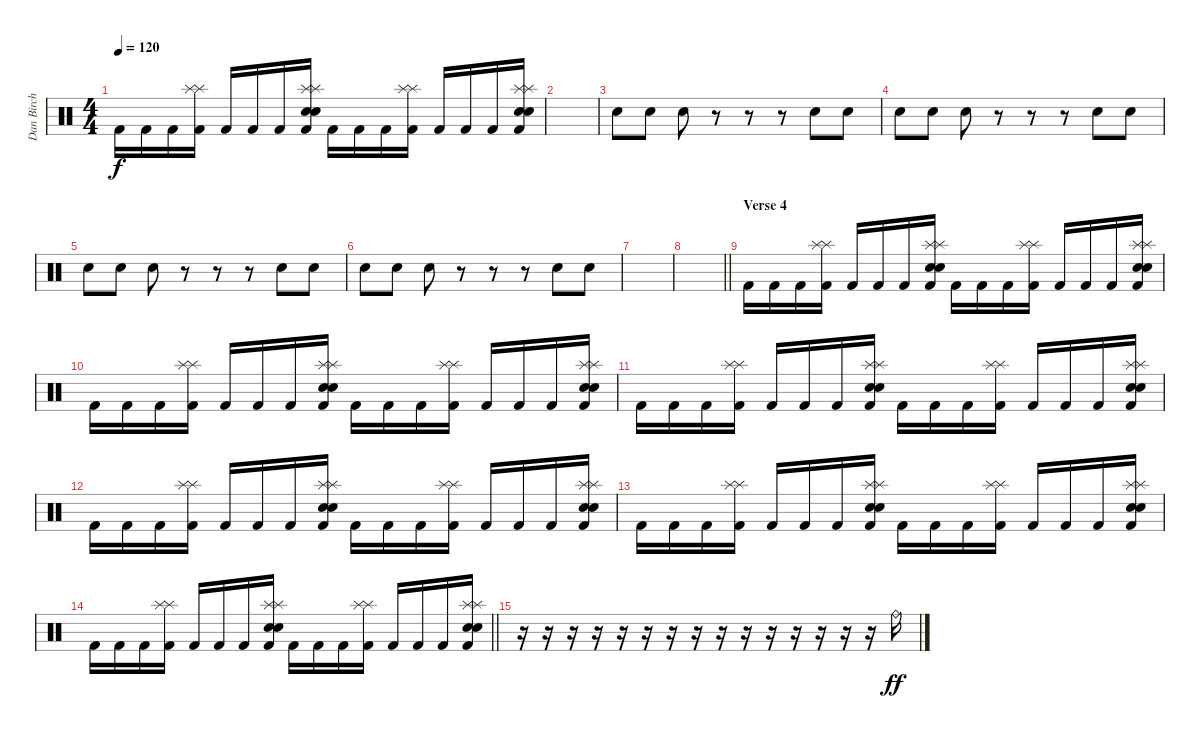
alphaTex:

\track ("Dan Birch" "Dan Birch") {instrument percussion}
\staff {score}
\articulation defaults
\ts (4 4)
\tempo 120
\clef neutral
\ks c "Kick (hit) 2".16{dy f} "Kick (hit) 2".16 "Kick (hit) 2".16
("Splash (hit)" "Splash (hit)" "Kick (hit) 2").16 "Kick (hit) 2".16 "Kick (hit) 2".16 "Kick (hit) 2".16 ("Splash (hit)" "Splash (hit)" "Kick (hit) 2" "Snare (hit) 2" "Snare (hit) 2").16 "Kick (hit) 2".16 "Kick (hit) 2".16 "Kick (hit) 2".16 ("Splash (hit)" "Splash (hit)" "Kick (hit) 2").16 "Kick (hit) 2".16 "Kick (hit) 2".16 "Kick (hit) 2".16 ("Splash (hit)" "Splash (hit)" "Kick (hit) 2" "Snare (hit) 2" "Snare (hit) 2").16 |
|
"Snare (hit) 2".8 "Snare (hit) 2".8 "Snare (hit) 2".8 r.8 r.8 r.8 "Snare (hit) 2".8 "Snare (hit) 2".8 |
"Snare (hit) 2".8 "Snare (hit) 2".8 "Snare (hit) 2".8 r.8 r.8 r.8 "Snare (hit) 2".8 "Snare (hit) 2".8 |
"Snare (hit) 2".8 "Snare (hit) 2".8 "Snare (hit) 2".8 r.8 r.8 r.8 "Snare (hit) 2".8 "Snare (hit) 2".8 |
"Snare (hit) 2".8 "Snare (hit) 2".8 "Snare (hit) 2".8 r.8 r.8 r.8 "Snare (hit) 2".8 "Snare (hit) 2".8 |
|
\barLineRight lightlight
|
\section ("" "Verse 4")
"Kick (hit) 2".16 "Kick (hit) 2".16 "Kick (hit) 2".16 ("Splash (hit)" "Splash (hit)" "Kick (hit) 2").16 "Kick (hit) 2".16 "Kick (hit) 2".16 "Kick (hit) 2".16 ("Splash (hit)" "Splash (hit)" "Kick (hit) 2" "Snare (hit) 2" "Snare (hit) 2").16 "Kick (hit) 2".16 "Kick (hit) 2".16 "Kick (hit) 2".16 ("Splash (hit)" "Splash (hit)" "Kick (hit) 2").16 "Kick (hit) 2".16 "Kick (hit) 2".16 "Kick (hit) 2".16 ("Splash (hit)" "Splash (hit)" "Kick (hit) 2" "Snare (hit) 2" "Snare (hit) 2").16 |
"Kick (hit) 2".16 "Kick (hit) 2".16 "Kick (hit) 2".16 ("Splash (hit)" "Splash (hit)" "Kick (hit) 2").16 "Kick (hit) 2".16 "Kick (hit) 2".16 "Kick (hit) 2".16 ("Splash (hit)" "Splash (hit)" "Kick (hit) 2" "Snare (hit) 2" "Snare (hit) 2").16 "Kick (hit) 2".16 "Kick (hit) 2".16 "Kick (hit) 2".16 ("Splash (hit)" "Splash (hit)" "Kick (hit) 2").16 "Kick (hit) 2".16 "Kick (hit) 2".16 "Kick (hit) 2".16 ("Splash (hit)" "Splash (hit)" "Kick (hit) 2" "Snare (hit) 2" "Snare (hit) 2").16 |
"Kick (hit) 2".16 "Kick (hit) 2".16 "Kick (hit) 2".16 ("Splash (hit)" "Splash (hit)" "Kick (hit) 2").16 "Kick (hit) 2".16 "Kick (hit) 2".16 "Kick (hit) 2".16 ("Splash (hit)" "Splash (hit)" "Kick (hit) 2" "Snare (hit) 2" "Snare (hit) 2").16 "Kick (hit) 2".16 "Kick (hit) 2".16 "Kick (hit) 2".16 ("Splash (hit)" "Splash (hit)" "Kick (hit) 2").16 "Kick (hit) 2".16 "Kick (hit) 2".16 "Kick (hit) 2".16 ("Splash (hit)" "Splash (hit)" "Kick (hit) 2" "Snare (hit) 2" "Snare (hit) 2").16 |
"Kick (hit) 2".16 "Kick (hit) 2".16 "Kick (hit) 2".16 ("Splash (hit)" "Splash (hit)" "Kick (hit) 2").16 "Kick (hit) 2".16 "Kick (hit) 2".16 "Kick (hit) 2".16 ("Splash (hit)" "Splash (hit)" "Kick (hit) 2" "Snare (hit) 2" "Snare (hit) 2").16 "Kick (hit) 2".16 "Kick (hit) 2".16 "Kick (hit) 2".16 ("Splash (hit)" "Splash (hit)" "Kick (hit) 2").16 "Kick (hit) 2".16 "Kick (hit) 2".16 "Kick (hit) 2".16 ("Splash (hit)" "Splash (hit)" "Kick (hit) 2" "Snare (hit) 2" "Snare (hit) 2").16 |
"Kick (hit) 2".16 "Kick (hit) 2".16 "Kick (hit) 2".16 ("Splash (hit)" "Splash (hit)" "Kick (hit) 2").16 "Kick (hit) 2".16 "Kick (hit) 2".16 "Kick (hit) 2".16 ("Splash (hit)" "Splash (hit)" "Kick (hit) 2" "Snare (hit) 2" "Snare (hit) 2").16 "Kick (hit) 2".16 "Kick (hit) 2".16 "Kick (hit) 2".16 ("Splash (hit)" "Splash (hit)" "Kick (hit) 2").16 "Kick (hit) 2".16 "Kick (hit) 2".16 "Kick (hit) 2".16 ("Splash (hit)" "Splash (hit)" "Kick (hit) 2" "Snare (hit) 2" "Snare (hit) 2").16 |
\barLineRight lightlight "Kick (hit) 2".16 "Kick (hit) 2".16 "Kick (hit) 2".16
("Splash (hit)" "Splash (hit)" "Kick (hit) 2").16 "Kick (hit) 2".16 "Kick (hit) 2".16 "Kick (hit) 2".16 ("Splash (hit)" "Splash (hit)" "Kick (hit) 2" "Snare (hit) 2" "Snare (hit) 2").16 "Kick (hit) 2".16 "Kick (hit) 2".16 "Kick (hit) 2".16 ("Splash (hit)" "Splash (hit)" "Kick (hit) 2").16 "Kick (hit) 2".16 "Kick (hit) 2".16 "Kick (hit) 2".16 ("Splash (hit)" "Splash (hit)" "Kick (hit) 2" "Snare (hit) 2" "Snare (hit) 2").16 |
r.16 r.16 r.16 r.16 r.16 r.16 r.16 r.16 r.16 r.16 r.16 r.16 r.16 r.16 r.16 "Ride (bell)".16{dy ff}
